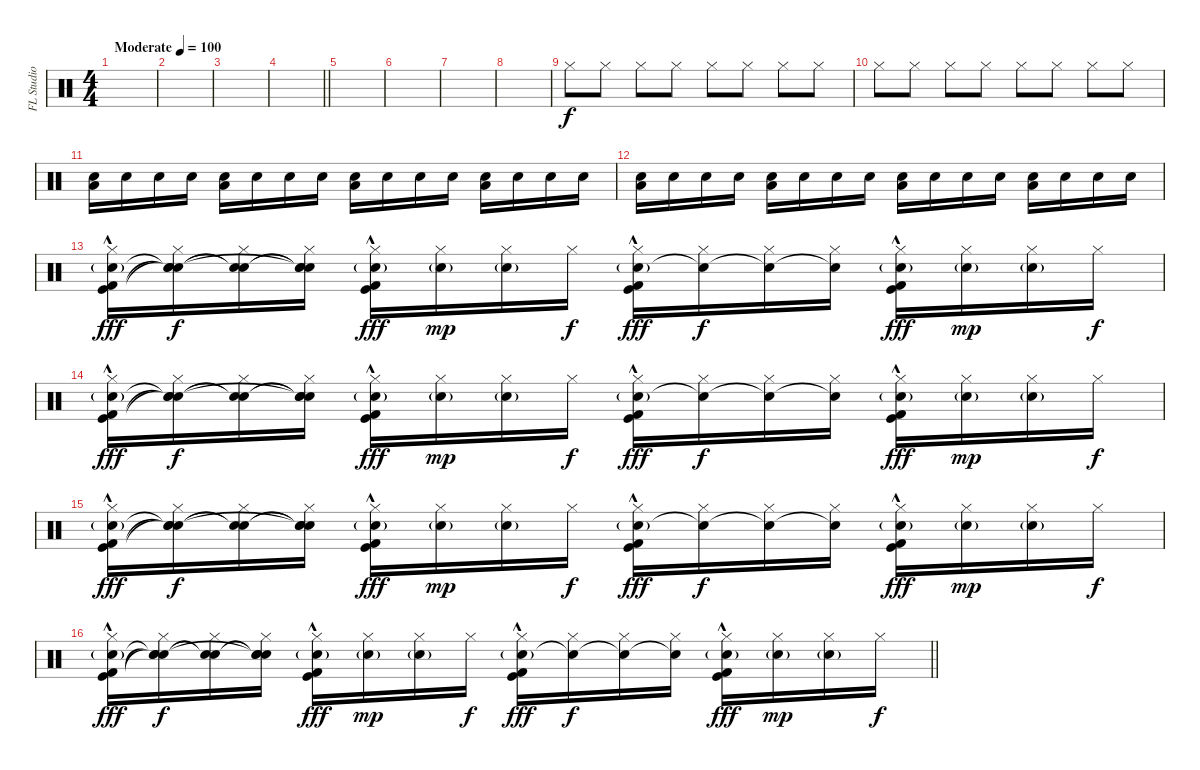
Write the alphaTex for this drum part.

\track ("FL Studio" "FL Studio") {instrument percussion}
\staff {score}
\articulation defaults
\ts (4 4)
\tempo (100 "Moderate")
\clef neutral
\ks c
|
|
|
\barLineRight lightlight
|
|
|
|
|
"Hi-Hat (closed)".8{volume 3} "Hi-Hat (closed)".8{volume 13} "Hi-Hat (closed)".8 "Hi-Hat (closed)".8 "Hi-Hat (closed)".8 "Hi-Hat (closed)".8 "Hi-Hat (closed)".8 "Hi-Hat (closed)".8 |
"Hi-Hat (closed)".8 "Hi-Hat (closed)".8 "Hi-Hat (closed)".8 "Hi-Hat (closed)".8 "Hi-Hat (closed)".8 "Hi-Hat (closed)".8 "Hi-Hat (closed)".8 "Hi-Hat (closed)".8 |
("Snare (hit) 2" "Low Tom (hit)").16 "Snare (hit) 2".16 "Snare (hit) 2".16 "Snare (hit) 2".16 ("Snare (hit) 2" "Low Tom (hit)").16 "Snare (hit) 2".16 "Snare (hit) 2".16 "Snare (hit) 2".16 ("Snare (hit) 2" "Low Tom (hit)").16 "Snare (hit) 2".16 "Snare (hit) 2".16 "Snare (hit) 2".16 ("Snare (hit) 2" "Low Tom (hit)").16 "Snare (hit) 2".16 "Snare (hit) 2".16 "Snare (hit) 2".16 |
("Snare (hit) 2" "Low Tom (hit)").16 "Snare (hit) 2".16 "Snare (hit) 2".16 "Snare (hit) 2".16 ("Snare (hit) 2" "Low Tom (hit)").16 "Snare (hit) 2".16 "Snare (hit) 2".16 "Snare (hit) 2".16 ("Snare (hit) 2" "Low Tom (hit)").16 "Snare (hit) 2".16 "Snare (hit) 2".16 "Snare (hit) 2".16 ("Snare (hit) 2" "Low Tom (hit)").16 "Snare (hit) 2".16 "Snare (hit) 2".16 "Snare (hit) 2".16 |
("Hi-Hat (closed)" "Snare (hit) 2"{g} "Kick (hit)"{hac} "Kick (hit) 2"{hac}).16{dy fff} ("Hi-Hat (closed)" "Snare (hit)"{t} "Snare (hit)"{t} "Snare (hit)"{t}).16{dy f} ("Hi-Hat (closed)" "Snare (hit)"{t} "Snare (hit)"{t}).16 ("Hi-Hat (closed)" "Snare (hit) 2"{t} "Snare (hit)"{t} "Snare (hit)"{t}).16 ("Hi-Hat (closed)" "Snare (hit) 2"{g} "Kick (hit)"{hac} "Kick (hit) 2"{hac}).16{dy fff} ("Hi-Hat (closed)" "Snare (hit) 2"{g}).16{dy mp} ("Hi-Hat (closed)" "Snare (hit) 2"{g}).16 "Hi-Hat (closed)".16{dy f} ("Hi-Hat (closed)" "Snare (hit) 2"{g} "Kick (hit) 2"{hac} "Kick (hit)"{hac}).16{dy fff} ("Hi-Hat (closed)" "Snare (hit) 2"{t}).16{dy f} ("Hi-Hat (closed)" "Snare (hit) 2"{t}).16 ("Hi-Hat (closed)" "Snare (hit) 2"{t}).16 ("Hi-Hat (closed)" "Snare (hit) 2"{g} "Kick (hit) 2"{hac} "Kick (hit)"{hac}).16{dy fff} ("Hi-Hat (closed)" "Snare (hit) 2"{g}).16{dy mp} ("Hi-Hat (closed)" "Snare (hit) 2"{g}).16 "Hi-Hat (closed)".16{dy f} |
("Hi-Hat (closed)" "Snare (hit) 2"{g} "Kick (hit)"{hac} "Kick (hit) 2"{hac}).16{dy fff} ("Hi-Hat (closed)" "Snare (hit)"{t} "Snare (hit)"{t} "Snare (hit)"{t}).16{dy f} ("Hi-Hat (closed)" "Snare (hit)"{t} "Snare (hit)"{t}).16 ("Hi-Hat (closed)" "Snare (hit) 2"{t} "Snare (hit)"{t} "Snare (hit)"{t}).16 ("Hi-Hat (closed)" "Snare (hit) 2"{g} "Kick (hit)"{hac} "Kick (hit) 2"{hac}).16{dy fff} ("Hi-Hat (closed)" "Snare (hit) 2"{g}).16{dy mp} ("Hi-Hat (closed)" "Snare (hit) 2"{g}).16 "Hi-Hat (closed)".16{dy f} ("Hi-Hat (closed)" "Snare (hit) 2"{g} "Kick (hit) 2"{hac} "Kick (hit)"{hac}).16{dy fff} ("Hi-Hat (closed)" "Snare (hit) 2"{t}).16{dy f} ("Hi-Hat (closed)" "Snare (hit) 2"{t}).16 ("Hi-Hat (closed)" "Snare (hit) 2"{t}).16 ("Hi-Hat (closed)" "Snare (hit) 2"{g} "Kick (hit) 2"{hac} "Kick (hit)"{hac}).16{dy fff} ("Hi-Hat (closed)" "Snare (hit) 2"{g}).16{dy mp} ("Hi-Hat (closed)" "Snare (hit) 2"{g}).16 "Hi-Hat (closed)".16{dy f} |
("Hi-Hat (closed)" "Snare (hit) 2"{g} "Kick (hit)"{hac} "Kick (hit) 2"{hac}).16{dy fff} ("Hi-Hat (closed)" "Snare (hit)"{t} "Snare (hit)"{t} "Snare (hit)"{t}).16{dy f} ("Hi-Hat (closed)" "Snare (hit)"{t} "Snare (hit)"{t}).16 ("Hi-Hat (closed)" "Snare (hit) 2"{t} "Snare (hit)"{t} "Snare (hit)"{t}).16 ("Hi-Hat (closed)" "Snare (hit) 2"{g} "Kick (hit)"{hac} "Kick (hit) 2"{hac}).16{dy fff} ("Hi-Hat (closed)" "Snare (hit) 2"{g}).16{dy mp} ("Hi-Hat (closed)" "Snare (hit) 2"{g}).16 "Hi-Hat (closed)".16{dy f} ("Hi-Hat (closed)" "Snare (hit) 2"{g} "Kick (hit) 2"{hac} "Kick (hit)"{hac}).16{dy fff} ("Hi-Hat (closed)" "Snare (hit) 2"{t}).16{dy f} ("Hi-Hat (closed)" "Snare (hit) 2"{t}).16 ("Hi-Hat (closed)" "Snare (hit) 2"{t}).16 ("Hi-Hat (closed)" "Snare (hit) 2"{g} "Kick (hit) 2"{hac} "Kick (hit)"{hac}).16{dy fff} ("Hi-Hat (closed)" "Snare (hit) 2"{g}).16{dy mp} ("Hi-Hat (closed)" "Snare (hit) 2"{g}).16 "Hi-Hat (closed)".16{dy f} |
\barLineRight lightlight
("Hi-Hat (closed)" "Snare (hit) 2"{g} "Kick (hit)"{hac} "Kick (hit) 2"{hac}).16{dy fff} ("Hi-Hat (closed)" "Snare (hit)"{t} "Snare (hit)"{t} "Snare (hit)"{t}).16{dy f} ("Hi-Hat (closed)" "Snare (hit)"{t} "Snare (hit)"{t}).16 ("Hi-Hat (closed)" "Snare (hit) 2"{t} "Snare (hit)"{t} "Snare (hit)"{t}).16 ("Hi-Hat (closed)" "Snare (hit) 2"{g} "Kick (hit)"{hac} "Kick (hit) 2"{hac}).16{dy fff} ("Hi-Hat (closed)" "Snare (hit) 2"{g}).16{dy mp} ("Hi-Hat (closed)" "Snare (hit) 2"{g}).16 "Hi-Hat (closed)".16{dy f} ("Hi-Hat (closed)" "Snare (hit) 2"{g} "Kick (hit) 2"{hac} "Kick (hit)"{hac}).16{dy fff} ("Hi-Hat (closed)" "Snare (hit) 2"{t}).16{dy f} ("Hi-Hat (closed)" "Snare (hit) 2"{t}).16 ("Hi-Hat (closed)" "Snare (hit) 2"{t}).16 ("Hi-Hat (closed)" "Snare (hit) 2"{g} "Kick (hit) 2"{hac} "Kick (hit)"{hac}).16{dy fff} ("Hi-Hat (closed)" "Snare (hit) 2"{g}).16{dy mp} ("Hi-Hat (closed)" "Snare (hit) 2"{g}).16 "Hi-Hat (closed)".16{dy f}
